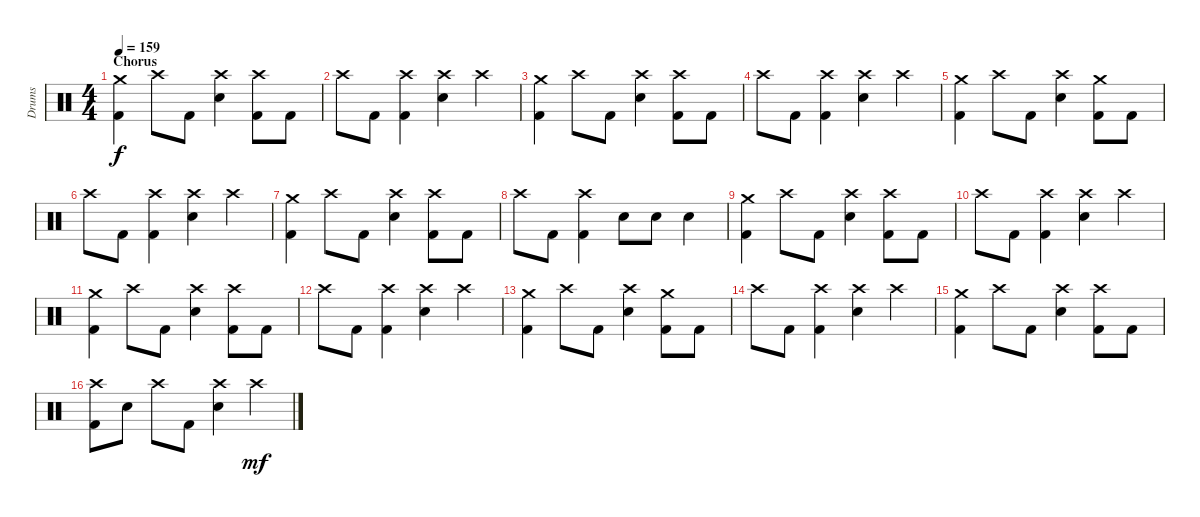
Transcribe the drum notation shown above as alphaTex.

\track ("Drums" "Drums") {instrument percussion}
\staff {score}
\articulation defaults
\ts (4 4)
\section ("" "Chorus")
\tempo 159
\clef neutral
\ks c
("Crash medium (hit)" "Kick (hit) 2").4{dy f} "Crash high (hit)".8 "Kick (hit) 2".8 ("Crash high (hit)" "Electric Snare (hit)").4 ("Crash high (hit)" "Kick (hit) 2").8 "Kick (hit) 2".8 |
"Crash high (hit)".8 "Kick (hit) 2".8 ("Crash high (hit)" "Kick (hit) 2").4 ("Crash high (hit)" "Electric Snare (hit)").4 "Crash high (hit)".4 |
("Crash medium (hit)" "Kick (hit) 2").4 "Crash high (hit)".8 "Kick (hit) 2".8 ("Crash high (hit)" "Electric Snare (hit)").4 ("Crash high (hit)" "Kick (hit) 2").8 "Kick (hit) 2".8 |
"Crash high (hit)".8 "Kick (hit) 2".8 ("Crash high (hit)" "Kick (hit) 2").4 ("Crash high (hit)" "Electric Snare (hit)").4 "Crash high (hit)".4 |
("Crash medium (hit)" "Kick (hit) 2").4 "Crash high (hit)".8 "Kick (hit) 2".8 ("Crash high (hit)" "Electric Snare (hit)").4 ("Crash medium (hit)" "Kick (hit) 2").8 "Kick (hit) 2".8 |
"Crash high (hit)".8 "Kick (hit) 2".8 ("Crash high (hit)" "Kick (hit) 2").4 ("Crash high (hit)" "Electric Snare (hit)").4 "Crash high (hit)".4 |
("Crash medium (hit)" "Kick (hit) 2").4 "Crash high (hit)".8 "Kick (hit) 2".8 ("Crash high (hit)" "Electric Snare (hit)").4 ("Crash high (hit)" "Kick (hit) 2").8 "Kick (hit) 2".8 |
"Crash high (hit)".8 "Kick (hit) 2".8 ("Crash high (hit)" "Kick (hit) 2").4 "Electric Snare (hit)".8 "Electric Snare (hit)".8 "Electric Snare (hit)".4 |
("Crash medium (hit)" "Kick (hit) 2").4 "Crash high (hit)".8 "Kick (hit) 2".8 ("Crash high (hit)" "Electric Snare (hit)").4 ("Crash high (hit)" "Kick (hit) 2").8 "Kick (hit) 2".8 |
"Crash high (hit)".8 "Kick (hit) 2".8 ("Crash high (hit)" "Kick (hit) 2").4 ("Crash high (hit)" "Electric Snare (hit)").4 "Crash high (hit)".4 |
("Crash medium (hit)" "Kick (hit) 2").4 "Crash high (hit)".8 "Kick (hit) 2".8 ("Crash high (hit)" "Electric Snare (hit)").4 ("Crash high (hit)" "Kick (hit) 2").8 "Kick (hit) 2".8 |
"Crash high (hit)".8 "Kick (hit) 2".8 ("Crash high (hit)" "Kick (hit) 2").4 ("Crash high (hit)" "Electric Snare (hit)").4 "Crash high (hit)".4 |
("Crash medium (hit)" "Kick (hit) 2").4 "Crash high (hit)".8 "Kick (hit) 2".8 ("Crash high (hit)" "Electric Snare (hit)").4 ("Crash medium (hit)" "Kick (hit) 2").8 "Kick (hit) 2".8 |
"Crash high (hit)".8 "Kick (hit) 2".8 ("Crash high (hit)" "Kick (hit) 2").4 ("Crash high (hit)" "Electric Snare (hit)").4 "Crash high (hit)".4 |
("Crash medium (hit)" "Kick (hit) 2").4 "Crash high (hit)".8 "Kick (hit) 2".8 ("Crash high (hit)" "Electric Snare (hit)").4 ("Crash high (hit)" "Kick (hit) 2").8 "Kick (hit) 2".8 |
("Crash high (hit)" "Kick (hit) 2").8 "Electric Snare (hit)".8 "Crash high (hit)".8 "Kick (hit) 2".8 ("Crash high (hit)" "Electric Snare (hit)").4 "Crash high (hit)".4{dy mf}
